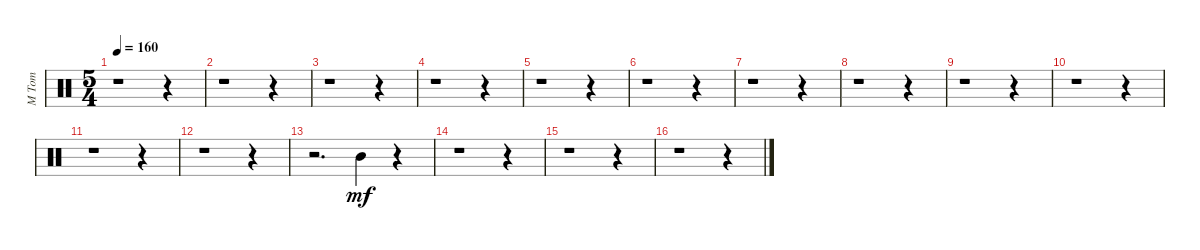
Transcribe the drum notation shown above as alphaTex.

\track ("M Tom" "M Tom") {instrument percussion}
\staff {score}
\articulation defaults
\ts (5 4)
\tempo 160
\clef neutral
\ks c
r.1{dy mf} r.4 |
r.1 r.4 |
r.1 r.4 |
r.1 r.4 |
r.1 r.4 |
r.1 r.4 |
r.1 r.4 |
r.1 r.4 |
r.1 r.4 |
r.1 r.4 |
r.1 r.4 |
r.1 r.4 |
r.2{d} "Mid Tom (hit)".4 r.4 |
r.1 r.4 |
r.1 r.4 |
r.1 r.4
